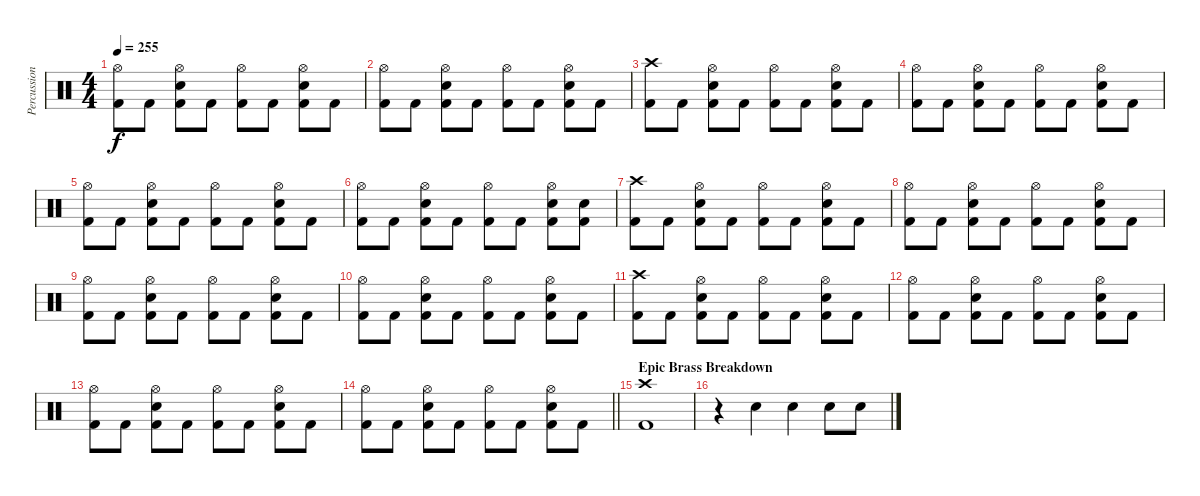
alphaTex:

\track ("Percussion" "Percussion") {instrument percussion}
\staff {score}
\articulation defaults
\ts (4 4)
\tempo 255
\clef neutral
\ks c
("Hi-Hat (open)" "Kick (hit) 2").8{dy f} "Kick (hit) 2".8 ("Hi-Hat (open)" "Snare (hit) 2" "Kick (hit) 2").8 "Kick (hit) 2".8 ("Hi-Hat (open)" "Kick (hit) 2").8 "Kick (hit) 2".8 ("Hi-Hat (open)" "Snare (hit) 2" "Kick (hit) 2").8 "Kick (hit) 2".8 |
("Hi-Hat (open)" "Kick (hit) 2").8 "Kick (hit) 2".8 ("Hi-Hat (open)" "Snare (hit) 2" "Kick (hit) 2").8 "Kick (hit) 2".8 ("Hi-Hat (open)" "Kick (hit) 2").8 "Kick (hit) 2".8 ("Hi-Hat (open)" "Snare (hit) 2" "Kick (hit) 2").8 "Kick (hit) 2".8 |
("Crash high (hit)" "Kick (hit) 2").8 "Kick (hit) 2".8 ("Hi-Hat (open)" "Snare (hit) 2" "Kick (hit) 2").8 "Kick (hit) 2".8 ("Hi-Hat (open)" "Kick (hit) 2").8 "Kick (hit) 2".8 ("Hi-Hat (open)" "Snare (hit) 2" "Kick (hit) 2").8 "Kick (hit) 2".8 |
("Hi-Hat (open)" "Kick (hit) 2").8 "Kick (hit) 2".8 ("Hi-Hat (open)" "Snare (hit) 2" "Kick (hit) 2").8 "Kick (hit) 2".8 ("Hi-Hat (open)" "Kick (hit) 2").8 "Kick (hit) 2".8 ("Hi-Hat (open)" "Snare (hit) 2" "Kick (hit) 2").8 "Kick (hit) 2".8 |
("Hi-Hat (open)" "Kick (hit) 2").8 "Kick (hit) 2".8 ("Hi-Hat (open)" "Snare (hit) 2" "Kick (hit) 2").8 "Kick (hit) 2".8 ("Hi-Hat (open)" "Kick (hit) 2").8 "Kick (hit) 2".8 ("Hi-Hat (open)" "Snare (hit) 2" "Kick (hit) 2").8 "Kick (hit) 2".8 |
("Hi-Hat (open)" "Kick (hit) 2").8 "Kick (hit) 2".8 ("Hi-Hat (open)" "Snare (hit) 2" "Kick (hit) 2").8 "Kick (hit) 2".8 ("Hi-Hat (open)" "Kick (hit) 2").8 "Kick (hit) 2".8 ("Hi-Hat (open)" "Snare (hit) 2" "Kick (hit) 2").8 ("Snare (hit) 2" "Kick (hit) 2").8 |
("Crash high (hit)" "Kick (hit) 2").8 "Kick (hit) 2".8 ("Hi-Hat (open)" "Snare (hit) 2" "Kick (hit) 2").8 "Kick (hit) 2".8 ("Hi-Hat (open)" "Kick (hit) 2").8 "Kick (hit) 2".8 ("Hi-Hat (open)" "Snare (hit) 2" "Kick (hit) 2").8 "Kick (hit) 2".8 |
("Hi-Hat (open)" "Kick (hit) 2").8 "Kick (hit) 2".8 ("Hi-Hat (open)" "Snare (hit) 2" "Kick (hit) 2").8 "Kick (hit) 2".8 ("Hi-Hat (open)" "Kick (hit) 2").8 "Kick (hit) 2".8 ("Hi-Hat (open)" "Snare (hit) 2" "Kick (hit) 2").8 "Kick (hit) 2".8 |
("Hi-Hat (open)" "Kick (hit) 2").8 "Kick (hit) 2".8 ("Hi-Hat (open)" "Snare (hit) 2" "Kick (hit) 2").8 "Kick (hit) 2".8 ("Hi-Hat (open)" "Kick (hit) 2").8 "Kick (hit) 2".8 ("Hi-Hat (open)" "Snare (hit) 2" "Kick (hit) 2").8 "Kick (hit) 2".8 |
("Hi-Hat (open)" "Kick (hit) 2").8 "Kick (hit) 2".8 ("Hi-Hat (open)" "Snare (hit) 2" "Kick (hit) 2").8 "Kick (hit) 2".8 ("Hi-Hat (open)" "Kick (hit) 2").8 "Kick (hit) 2".8 ("Hi-Hat (open)" "Snare (hit) 2" "Kick (hit) 2").8 "Kick (hit) 2".8 |
("Crash high (hit)" "Kick (hit) 2").8 "Kick (hit) 2".8 ("Hi-Hat (open)" "Snare (hit) 2" "Kick (hit) 2").8 "Kick (hit) 2".8 ("Hi-Hat (open)" "Kick (hit) 2").8 "Kick (hit) 2".8 ("Hi-Hat (open)" "Snare (hit) 2" "Kick (hit) 2").8 "Kick (hit) 2".8 |
("Hi-Hat (open)" "Kick (hit) 2").8 "Kick (hit) 2".8 ("Hi-Hat (open)" "Snare (hit) 2" "Kick (hit) 2").8 "Kick (hit) 2".8 ("Hi-Hat (open)" "Kick (hit) 2").8 "Kick (hit) 2".8 ("Hi-Hat (open)" "Snare (hit) 2" "Kick (hit) 2").8 "Kick (hit) 2".8 |
("Hi-Hat (open)" "Kick (hit) 2").8 "Kick (hit) 2".8 ("Hi-Hat (open)" "Snare (hit) 2" "Kick (hit) 2").8 "Kick (hit) 2".8 ("Hi-Hat (open)" "Kick (hit) 2").8 "Kick (hit) 2".8 ("Hi-Hat (open)" "Snare (hit) 2" "Kick (hit) 2").8 "Kick (hit) 2".8 |
\barLineRight lightlight
("Hi-Hat (open)" "Kick (hit) 2").8 "Kick (hit) 2".8 ("Hi-Hat (open)" "Snare (hit) 2" "Kick (hit) 2").8 "Kick (hit) 2".8 ("Hi-Hat (open)" "Kick (hit) 2").8 "Kick (hit) 2".8 ("Hi-Hat (open)" "Snare (hit) 2" "Kick (hit) 2").8 "Kick (hit) 2".8 |
\section ("" "Epic Brass Breakdown")
("Crash high (hit)" "Kick (hit) 2").1 |
r.4 "Snare (hit) 2".4 "Snare (hit) 2".4 "Snare (hit) 2".8 "Snare (hit) 2".8
